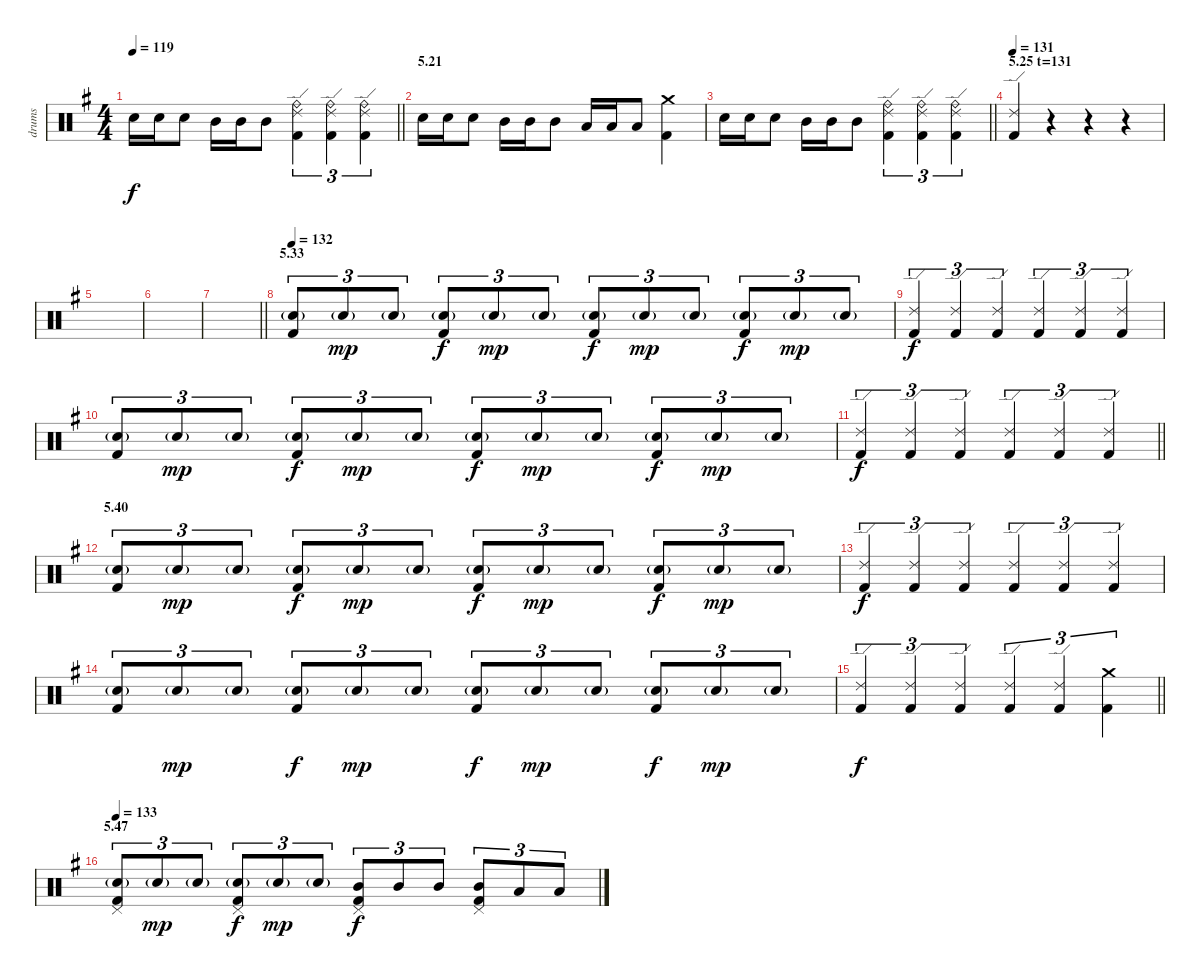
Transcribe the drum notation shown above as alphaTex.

\track ("drums" "drums") {instrument percussion}
\staff {score}
\articulation defaults
\ts (4 4)
\tempo 119
\clef neutral
\barLineRight lightlight
\ks g "Electric Snare (hit)".16{dy f} "Electric Snare (hit)".16 "Electric Snare (hit)".8 "Mid Tom (hit)".16 "Mid Tom (hit)".16 "Mid Tom (hit)".8
("Ride (bell)" "Ride (edge) 2" "Kick (hit) 2").4{tu (3 2)} ("Ride (bell)" "Ride (edge) 2" "Kick (hit) 2").4{tu (3 2)} ("Ride (bell)" "Ride (edge) 2" "Kick (hit) 2").4{tu (3 2)} |
\section ("" "5.21")
"Electric Snare (hit)".16 "Electric Snare (hit)".16 "Electric Snare (hit)".8 "Mid Tom (hit)".16 "Mid Tom (hit)".16 "Mid Tom (hit)".8 "Low Tom (hit)".16 "Low Tom (hit)".16 "Low Tom (hit)".8 ("Crash medium (hit)" "Kick (hit) 2").4 |
\barLineRight lightlight "Electric Snare (hit)".16 "Electric Snare (hit)".16 "Electric Snare (hit)".8 "Mid Tom (hit)".16 "Mid Tom (hit)".16 "Mid Tom (hit)".8
("Ride (bell)" "Ride (edge) 2" "Kick (hit) 2").4{tu (3 2)} ("Ride (bell)" "Ride (edge) 2" "Kick (hit) 2").4{tu (3 2)} ("Ride (bell)" "Ride (edge) 2" "Kick (hit) 2").4{tu (3 2)} |
\section ("" "5.25 t=131")
\tempo 131
("Ride (edge) 2" "Kick (hit) 2").4 r.4 r.4 r.4 |
|
|
\barLineRight lightlight
|
\section ("" "5.33")
\tempo 132
("Electric Snare (hit)"{g} "Kick (hit) 2").8{tu (3 2)} "Electric Snare (hit)"{g}.8{tu (3 2) dy mp} "Electric Snare (hit)"{g}.8{tu (3 2)} ("Electric Snare (hit)"{g} "Kick (hit) 2").8{tu (3 2) dy f} "Electric Snare (hit)"{g}.8{tu (3 2) dy mp} "Electric Snare (hit)"{g}.8{tu (3 2)} ("Electric Snare (hit)"{g} "Kick (hit) 2").8{tu (3 2) dy f} "Electric Snare (hit)"{g}.8{tu (3 2) dy mp} "Electric Snare (hit)"{g}.8{tu (3 2)} ("Electric Snare (hit)"{g} "Kick (hit) 2").8{tu (3 2) dy f} "Electric Snare (hit)"{g}.8{tu (3 2) dy mp} "Electric Snare (hit)"{g}.8{tu (3 2)} |
("Ride (edge) 2" "Kick (hit) 2").4{tu (3 2) dy f} ("Ride (edge) 2" "Kick (hit) 2").4{tu (3 2)} ("Ride (edge) 2" "Kick (hit) 2").4{tu (3 2)} ("Ride (edge) 2" "Kick (hit) 2").4{tu (3 2)} ("Ride (edge) 2" "Kick (hit) 2").4{tu (3 2)} ("Ride (edge) 2" "Kick (hit) 2").4{tu (3 2)} |
("Electric Snare (hit)"{g} "Kick (hit) 2").8{tu (3 2)} "Electric Snare (hit)"{g}.8{tu (3 2) dy mp} "Electric Snare (hit)"{g}.8{tu (3 2)} ("Electric Snare (hit)"{g} "Kick (hit) 2").8{tu (3 2) dy f} "Electric Snare (hit)"{g}.8{tu (3 2) dy mp} "Electric Snare (hit)"{g}.8{tu (3 2)} ("Electric Snare (hit)"{g} "Kick (hit) 2").8{tu (3 2) dy f} "Electric Snare (hit)"{g}.8{tu (3 2) dy mp} "Electric Snare (hit)"{g}.8{tu (3 2)} ("Electric Snare (hit)"{g} "Kick (hit) 2").8{tu (3 2) dy f} "Electric Snare (hit)"{g}.8{tu (3 2) dy mp} "Electric Snare (hit)"{g}.8{tu (3 2)} |
\barLineRight lightlight
("Ride (edge) 2" "Kick (hit) 2").4{tu (3 2) dy f} ("Ride (edge) 2" "Kick (hit) 2").4{tu (3 2)} ("Ride (edge) 2" "Kick (hit) 2").4{tu (3 2)} ("Ride (edge) 2" "Kick (hit) 2").4{tu (3 2)} ("Ride (edge) 2" "Kick (hit) 2").4{tu (3 2)} ("Ride (edge) 2" "Kick (hit) 2").4{tu (3 2)} |
\section ("" "5.40")
("Electric Snare (hit)"{g} "Kick (hit) 2").8{tu (3 2)} "Electric Snare (hit)"{g}.8{tu (3 2) dy mp} "Electric Snare (hit)"{g}.8{tu (3 2)} ("Electric Snare (hit)"{g} "Kick (hit) 2").8{tu (3 2) dy f} "Electric Snare (hit)"{g}.8{tu (3 2) dy mp} "Electric Snare (hit)"{g}.8{tu (3 2)} ("Electric Snare (hit)"{g} "Kick (hit) 2").8{tu (3 2) dy f} "Electric Snare (hit)"{g}.8{tu (3 2) dy mp} "Electric Snare (hit)"{g}.8{tu (3 2)} ("Electric Snare (hit)"{g} "Kick (hit) 2").8{tu (3 2) dy f} "Electric Snare (hit)"{g}.8{tu (3 2) dy mp} "Electric Snare (hit)"{g}.8{tu (3 2)} |
("Ride (edge) 2" "Kick (hit) 2").4{tu (3 2) dy f} ("Ride (edge) 2" "Kick (hit) 2").4{tu (3 2)} ("Ride (edge) 2" "Kick (hit) 2").4{tu (3 2)} ("Ride (edge) 2" "Kick (hit) 2").4{tu (3 2)} ("Ride (edge) 2" "Kick (hit) 2").4{tu (3 2)} ("Ride (edge) 2" "Kick (hit) 2").4{tu (3 2)} |
("Electric Snare (hit)"{g} "Kick (hit) 2").8{tu (3 2)} "Electric Snare (hit)"{g}.8{tu (3 2) dy mp} "Electric Snare (hit)"{g}.8{tu (3 2)} ("Electric Snare (hit)"{g} "Kick (hit) 2").8{tu (3 2) dy f} "Electric Snare (hit)"{g}.8{tu (3 2) dy mp} "Electric Snare (hit)"{g}.8{tu (3 2)} ("Electric Snare (hit)"{g} "Kick (hit) 2").8{tu (3 2) dy f} "Electric Snare (hit)"{g}.8{tu (3 2) dy mp} "Electric Snare (hit)"{g}.8{tu (3 2)} ("Electric Snare (hit)"{g} "Kick (hit) 2").8{tu (3 2) dy f} "Electric Snare (hit)"{g}.8{tu (3 2) dy mp} "Electric Snare (hit)"{g}.8{tu (3 2)} |
\barLineRight lightlight
("Ride (edge) 2" "Kick (hit) 2").4{tu (3 2) dy f} ("Ride (edge) 2" "Kick (hit) 2").4{tu (3 2)} ("Ride (edge) 2" "Kick (hit) 2").4{tu (3 2)} ("Ride (edge) 2" "Kick (hit) 2").4{tu (3 2)} ("Ride (edge) 2" "Kick (hit) 2").4{tu (3 2)} ("Crash medium (hit)" "Kick (hit) 2").4{tu (3 2)} |
\section ("" "5.47")
\tempo 133
("Pedal Hi-Hat (hit)" "Electric Snare (hit)"{g} "Kick (hit) 2").8{tu (3 2)} "Electric Snare (hit)"{g}.8{tu (3 2) dy mp} "Electric Snare (hit)"{g}.8{tu (3 2)} ("Pedal Hi-Hat (hit)" "Electric Snare (hit)"{g} "Kick (hit) 2").8{tu (3 2) dy f} "Electric Snare (hit)"{g}.8{tu (3 2) dy mp} "Electric Snare (hit)"{g}.8{tu (3 2)} ("Pedal Hi-Hat (hit)" "Mid Tom (hit)" "Kick (hit) 2").8{tu (3 2) dy f} "Mid Tom (hit)".8{tu (3 2)} "Mid Tom (hit)".8{tu (3 2)} ("Pedal Hi-Hat (hit)" "Mid Tom (hit)" "Kick (hit) 2").8{tu (3 2)} "Low Tom (hit)".8{tu (3 2)} "Low Tom (hit)".8{tu (3 2)}
